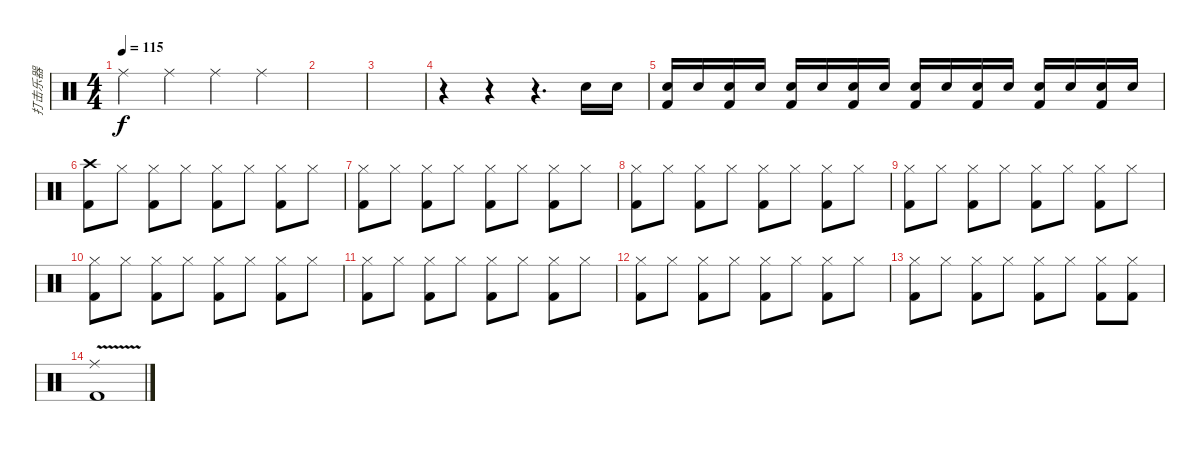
\track ("打击乐器" "打击乐器") {instrument percussion}
\staff {score}
\articulation defaults
\ts (4 4)
\tempo 115
\clef neutral
\ks c "Ride (middle)".4{dy f} "Ride (middle)".4 "Ride (middle)".4 "Ride (middle)".4
|
|
|
r.4 r.4 r.4{d} "Electric Snare (hit)".16{volume 5} "Electric Snare (hit)".16 |
("Electric Snare (hit)" "Kick (hit) 2").16{volume 6} "Electric Snare (hit)".16 ("Electric Snare (hit)" "Kick (hit) 2").16 "Electric Snare (hit)".16 ("Electric Snare (hit)" "Kick (hit) 2").16{volume 8} "Electric Snare (hit)".16 ("Electric Snare (hit)" "Kick (hit) 2").16 "Electric Snare (hit)".16 ("Electric Snare (hit)" "Kick (hit) 2").16{volume 11} "Electric Snare (hit)".16 ("Electric Snare (hit)" "Kick (hit) 2").16 "Electric Snare (hit)".16 ("Electric Snare (hit)" "Kick (hit) 2").16{volume 11} "Electric Snare (hit)".16 ("Electric Snare (hit)" "Kick (hit) 2").16 "Electric Snare (hit)".16 |
("Crash high (hit)" "Kick (hit) 2").8 "Hi-Hat (closed)".8 ("Hi-Hat (closed)" "Kick (hit) 2").8 "Hi-Hat (closed)".8 ("Hi-Hat (closed)" "Kick (hit) 2").8 "Hi-Hat (closed)".8 ("Hi-Hat (closed)" "Kick (hit) 2").8 "Hi-Hat (closed)".8 |
("Hi-Hat (closed)" "Kick (hit) 2").8 "Hi-Hat (closed)".8 ("Hi-Hat (closed)" "Kick (hit) 2").8 "Hi-Hat (closed)".8 ("Hi-Hat (closed)" "Kick (hit) 2").8 "Hi-Hat (closed)".8 ("Hi-Hat (closed)" "Kick (hit) 2").8 "Hi-Hat (closed)".8 |
("Hi-Hat (closed)" "Kick (hit) 2").8 "Hi-Hat (closed)".8 ("Hi-Hat (closed)" "Kick (hit) 2").8 "Hi-Hat (closed)".8 ("Hi-Hat (closed)" "Kick (hit) 2").8 "Hi-Hat (closed)".8 ("Hi-Hat (closed)" "Kick (hit) 2").8 "Hi-Hat (closed)".8 |
("Hi-Hat (closed)" "Kick (hit) 2").8 "Hi-Hat (closed)".8 ("Hi-Hat (closed)" "Kick (hit) 2").8 "Hi-Hat (closed)".8 ("Hi-Hat (closed)" "Kick (hit) 2").8 "Hi-Hat (closed)".8 ("Hi-Hat (closed)" "Kick (hit) 2").8 "Hi-Hat (closed)".8 |
("Hi-Hat (closed)" "Kick (hit) 2").8 "Hi-Hat (closed)".8 ("Hi-Hat (closed)" "Kick (hit) 2").8 "Hi-Hat (closed)".8 ("Hi-Hat (closed)" "Kick (hit) 2").8 "Hi-Hat (closed)".8 ("Hi-Hat (closed)" "Kick (hit) 2").8 "Hi-Hat (closed)".8 |
("Hi-Hat (closed)" "Kick (hit) 2").8 "Hi-Hat (closed)".8 ("Hi-Hat (closed)" "Kick (hit) 2").8 "Hi-Hat (closed)".8 ("Hi-Hat (closed)" "Kick (hit) 2").8 "Hi-Hat (closed)".8 ("Hi-Hat (closed)" "Kick (hit) 2").8 "Hi-Hat (closed)".8 |
("Hi-Hat (closed)" "Kick (hit) 2").8 "Hi-Hat (closed)".8 ("Hi-Hat (closed)" "Kick (hit) 2").8 "Hi-Hat (closed)".8 ("Hi-Hat (closed)" "Kick (hit) 2").8 "Hi-Hat (closed)".8 ("Hi-Hat (closed)" "Kick (hit) 2").8 "Hi-Hat (closed)".8 |
("Hi-Hat (closed)" "Kick (hit) 2").8 "Hi-Hat (closed)".8 ("Hi-Hat (closed)" "Kick (hit) 2").8 "Hi-Hat (closed)".8 ("Hi-Hat (closed)" "Kick (hit) 2").8 "Hi-Hat (closed)".8 ("Hi-Hat (closed)" "Kick (hit) 2").8 ("Hi-Hat (closed)" "Kick (hit) 2").8 |
("Ride (middle)"{v} "Kick (hit) 2").1
